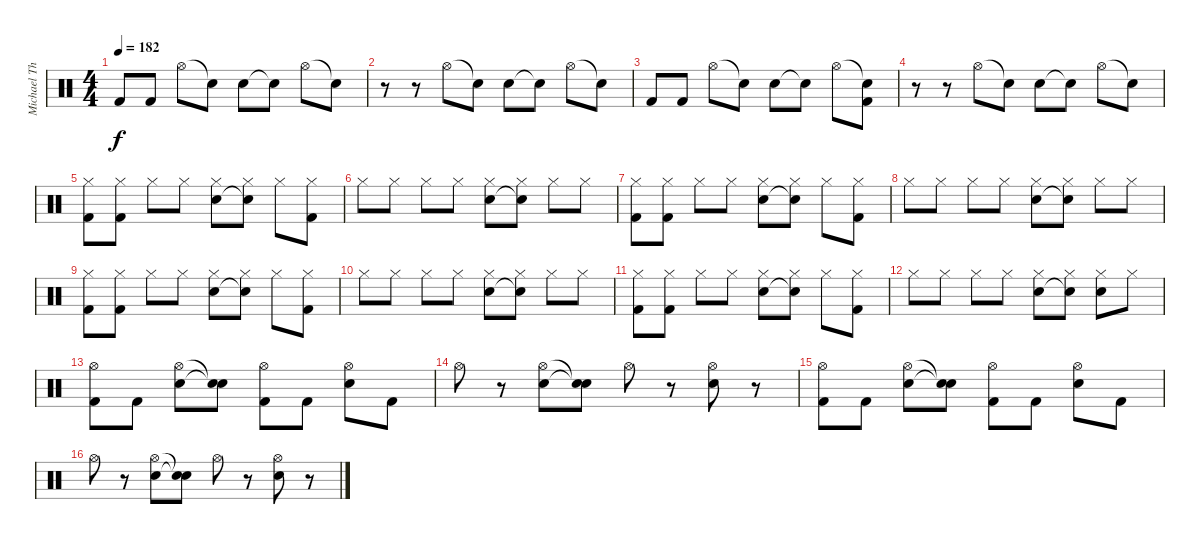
\track ("Michael Thomas" "Michael Th") {instrument percussion}
\staff {score}
\articulation defaults
\ts (4 4)
\tempo 182
\clef neutral
\ks c "Kick (hit) 2".8{dy f} "Kick (hit) 2".8 "Hi-Hat (open)".8 "Snare (hit)"{t}.8 "Electric Snare (hit)".8 "Snare (hit)"{t}.8 "Hi-Hat (open)".8 "Snare (hit)"{t}.8
|
r.8 r.8 "Hi-Hat (open)".8 "Snare (hit)"{t}.8 "Electric Snare (hit)".8 "Snare (hit)"{t}.8 "Hi-Hat (open)".8 "Snare (hit)"{t}.8 |
"Kick (hit) 2".8 "Kick (hit) 2".8 "Hi-Hat (open)".8 "Snare (hit)"{t}.8 "Electric Snare (hit)".8 "Snare (hit)"{t}.8 "Hi-Hat (open)".8 ("Snare (hit)"{t} "Kick (hit) 2").8 |
r.8 r.8 "Hi-Hat (open)".8 "Snare (hit)"{t}.8 "Electric Snare (hit)".8 "Snare (hit)"{t}.8 "Hi-Hat (open)".8 "Snare (hit)"{t}.8 |
("Hi-Hat (closed)" "Kick (hit) 2").8 ("Hi-Hat (closed)" "Kick (hit) 2").8 "Hi-Hat (closed)".8 "Hi-Hat (closed)".8 ("Hi-Hat (closed)" "Electric Snare (hit)").8 ("Hi-Hat (closed)" "Snare (hit)"{t}).8 "Hi-Hat (closed)".8 ("Hi-Hat (closed)" "Kick (hit) 2").8 |
"Hi-Hat (closed)".8 "Hi-Hat (closed)".8 "Hi-Hat (closed)".8 "Hi-Hat (closed)".8 ("Hi-Hat (closed)" "Electric Snare (hit)").8 ("Hi-Hat (closed)" "Snare (hit)"{t}).8 "Hi-Hat (closed)".8 "Hi-Hat (closed)".8 |
("Hi-Hat (closed)" "Kick (hit) 2").8 ("Hi-Hat (closed)" "Kick (hit) 2").8 "Hi-Hat (closed)".8 "Hi-Hat (closed)".8 ("Hi-Hat (closed)" "Electric Snare (hit)").8 ("Hi-Hat (closed)" "Snare (hit)"{t}).8 "Hi-Hat (closed)".8 ("Hi-Hat (closed)" "Kick (hit) 2").8 |
"Hi-Hat (closed)".8 "Hi-Hat (closed)".8 "Hi-Hat (closed)".8 "Hi-Hat (closed)".8 ("Hi-Hat (closed)" "Electric Snare (hit)").8 ("Hi-Hat (closed)" "Snare (hit)"{t}).8 "Hi-Hat (closed)".8 "Hi-Hat (closed)".8 |
("Hi-Hat (closed)" "Kick (hit) 2").8 ("Hi-Hat (closed)" "Kick (hit) 2").8 "Hi-Hat (closed)".8 "Hi-Hat (closed)".8 ("Hi-Hat (closed)" "Electric Snare (hit)").8 ("Hi-Hat (closed)" "Snare (hit)"{t}).8 "Hi-Hat (closed)".8 ("Hi-Hat (closed)" "Kick (hit) 2").8 |
"Hi-Hat (closed)".8 "Hi-Hat (closed)".8 "Hi-Hat (closed)".8 "Hi-Hat (closed)".8 ("Hi-Hat (closed)" "Electric Snare (hit)").8 ("Hi-Hat (closed)" "Snare (hit)"{t}).8 "Hi-Hat (closed)".8 "Hi-Hat (closed)".8 |
("Hi-Hat (closed)" "Kick (hit) 2").8 ("Hi-Hat (closed)" "Kick (hit) 2").8 "Hi-Hat (closed)".8 "Hi-Hat (closed)".8 ("Hi-Hat (closed)" "Electric Snare (hit)").8 ("Hi-Hat (closed)" "Snare (hit)"{t}).8 "Hi-Hat (closed)".8 ("Hi-Hat (closed)" "Kick (hit) 2").8 |
"Hi-Hat (closed)".8 "Hi-Hat (closed)".8 "Hi-Hat (closed)".8 "Hi-Hat (closed)".8 ("Hi-Hat (closed)" "Electric Snare (hit)").8 ("Hi-Hat (closed)" "Snare (hit)"{t}).8 ("Hi-Hat (closed)" "Electric Snare (hit)").8 "Hi-Hat (closed)".8 |
("Hi-Hat (open)" "Kick (hit) 2").8 "Kick (hit) 2".8 ("Hi-Hat (open)" "Electric Snare (hit)").8 ("Snare (hit)"{t} "Snare (hit)"{t}).8 ("Hi-Hat (open)" "Kick (hit) 2").8 "Kick (hit) 2".8 ("Hi-Hat (open)" "Electric Snare (hit)").8 "Kick (hit) 2".8 |
"Hi-Hat (open)".8 r.8 ("Hi-Hat (open)" "Electric Snare (hit)").8 ("Snare (hit)"{t} "Snare (hit)"{t}).8 "Hi-Hat (open)".8 r.8 ("Hi-Hat (open)" "Electric Snare (hit)").8 r.8 |
("Hi-Hat (open)" "Kick (hit) 2").8 "Kick (hit) 2".8 ("Hi-Hat (open)" "Electric Snare (hit)").8 ("Snare (hit)"{t} "Snare (hit)"{t}).8 ("Hi-Hat (open)" "Kick (hit) 2").8 "Kick (hit) 2".8 ("Hi-Hat (open)" "Electric Snare (hit)").8 "Kick (hit) 2".8 |
"Hi-Hat (open)".8 r.8 ("Hi-Hat (open)" "Electric Snare (hit)").8 ("Snare (hit)"{t} "Snare (hit)"{t}).8 "Hi-Hat (open)".8 r.8 ("Hi-Hat (open)" "Electric Snare (hit)").8 r.8
